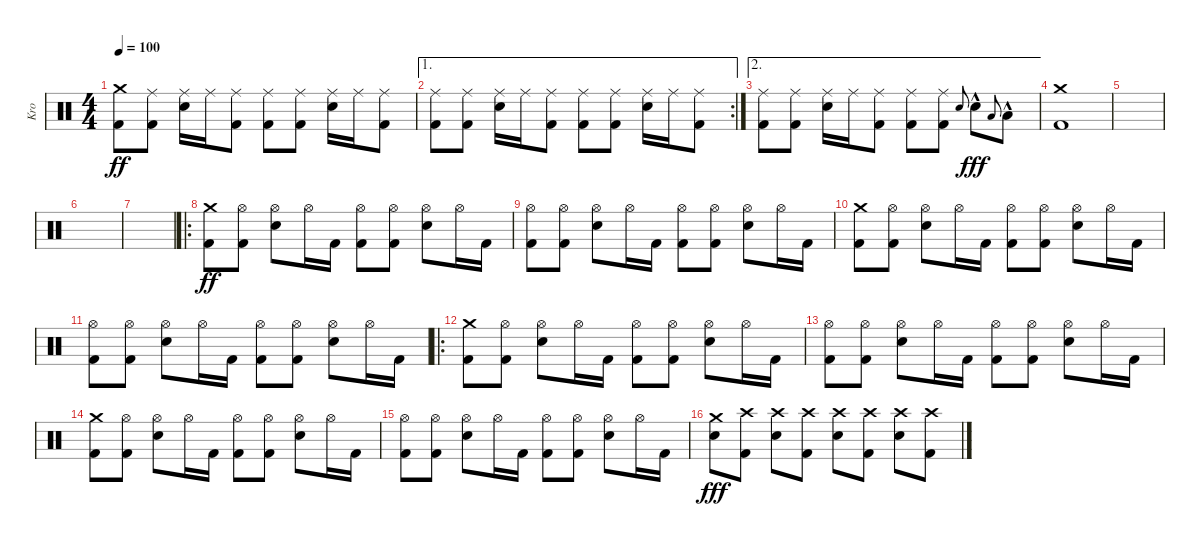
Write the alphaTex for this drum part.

\track ("Kro" "Kro") {instrument percussion}
\staff {score}
\articulation defaults
\ts (4 4)
\tempo 100
\clef neutral
\ks c
("Crash medium (hit)" "Kick (hit) 2").8{dy ff} ("Ride (middle)" "Kick (hit) 2").8 ("Ride (middle)" "Electric Snare (hit)").16 "Ride (middle)".16 ("Ride (middle)" "Kick (hit) 2").8 ("Ride (middle)" "Kick (hit) 2").8 ("Ride (middle)" "Kick (hit) 2").8 ("Ride (middle)" "Electric Snare (hit)").16 "Ride (middle)".16 ("Ride (middle)" "Kick (hit) 2").8 |
\ae 1
\rc 2
("Ride (middle)" "Kick (hit) 2").8 ("Ride (middle)" "Kick (hit) 2").8 ("Ride (middle)" "Electric Snare (hit)").16 "Ride (middle)".16 ("Ride (middle)" "Kick (hit) 2").8 ("Ride (middle)" "Kick (hit) 2").8 ("Ride (middle)" "Kick (hit) 2").8 ("Ride (middle)" "Electric Snare (hit)").16 "Ride (middle)".16 ("Ride (middle)" "Kick (hit) 2").8 |
\ae 2
("Ride (middle)" "Kick (hit) 2").8 ("Ride (middle)" "Kick (hit) 2").8 ("Ride (middle)" "Electric Snare (hit)").16 "Ride (middle)".16 ("Ride (middle)" "Kick (hit) 2").8 ("Ride (middle)" "Kick (hit) 2").8 ("Ride (middle)" "Kick (hit) 2").8 "Electric Snare (hit)".8{gr onbeat} "Electric Snare (hit)"{hac}.8{dy fff} "Low Tom (hit)".8{gr onbeat} "Low Tom (hit)"{hac}.8 |
("Crash medium (hit)" "Kick (hit) 2").1 |
|
|
|
\ro
("Crash medium (hit)" "Kick (hit) 2").8{dy ff} ("Hi-Hat (open)" "Kick (hit) 2").8 ("Hi-Hat (open)" "Electric Snare (hit)").8 "Hi-Hat (open)".16 "Kick (hit) 2".16 ("Hi-Hat (open)" "Kick (hit) 2").8 ("Hi-Hat (open)" "Kick (hit) 2").8 ("Hi-Hat (open)" "Electric Snare (hit)").8 "Hi-Hat (open)".16 "Kick (hit) 2".16 |
("Hi-Hat (open)" "Kick (hit) 2").8 ("Hi-Hat (open)" "Kick (hit) 2").8 ("Hi-Hat (open)" "Electric Snare (hit)").8 "Hi-Hat (open)".16 "Kick (hit) 2".16 ("Hi-Hat (open)" "Kick (hit) 2").8 ("Hi-Hat (open)" "Kick (hit) 2").8 ("Hi-Hat (open)" "Electric Snare (hit)").8 "Hi-Hat (open)".16 "Kick (hit) 2".16 |
("Crash medium (hit)" "Kick (hit) 2").8 ("Hi-Hat (open)" "Kick (hit) 2").8 ("Hi-Hat (open)" "Electric Snare (hit)").8 "Hi-Hat (open)".16 "Kick (hit) 2".16 ("Hi-Hat (open)" "Kick (hit) 2").8 ("Hi-Hat (open)" "Kick (hit) 2").8 ("Hi-Hat (open)" "Electric Snare (hit)").8 "Hi-Hat (open)".16 "Kick (hit) 2".16 |
("Hi-Hat (open)" "Kick (hit) 2").8 ("Hi-Hat (open)" "Kick (hit) 2").8 ("Hi-Hat (open)" "Electric Snare (hit)").8 "Hi-Hat (open)".16 "Kick (hit) 2".16 ("Hi-Hat (open)" "Kick (hit) 2").8 ("Hi-Hat (open)" "Kick (hit) 2").8 ("Hi-Hat (open)" "Electric Snare (hit)").8 "Hi-Hat (open)".16 "Kick (hit) 2".16 |
\ro
("Crash medium (hit)" "Kick (hit) 2").8 ("Hi-Hat (open)" "Kick (hit) 2").8 ("Hi-Hat (open)" "Electric Snare (hit)").8 "Hi-Hat (open)".16 "Kick (hit) 2".16 ("Hi-Hat (open)" "Kick (hit) 2").8 ("Hi-Hat (open)" "Kick (hit) 2").8 ("Hi-Hat (open)" "Electric Snare (hit)").8 "Hi-Hat (open)".16 "Kick (hit) 2".16 |
("Hi-Hat (open)" "Kick (hit) 2").8 ("Hi-Hat (open)" "Kick (hit) 2").8 ("Hi-Hat (open)" "Electric Snare (hit)").8 "Hi-Hat (open)".16 "Kick (hit) 2".16 ("Hi-Hat (open)" "Kick (hit) 2").8 ("Hi-Hat (open)" "Kick (hit) 2").8 ("Hi-Hat (open)" "Electric Snare (hit)").8 "Hi-Hat (open)".16 "Kick (hit) 2".16 |
("Crash medium (hit)" "Kick (hit) 2").8 ("Hi-Hat (open)" "Kick (hit) 2").8 ("Hi-Hat (open)" "Electric Snare (hit)").8 "Hi-Hat (open)".16 "Kick (hit) 2".16 ("Hi-Hat (open)" "Kick (hit) 2").8 ("Hi-Hat (open)" "Kick (hit) 2").8 ("Hi-Hat (open)" "Electric Snare (hit)").8 "Hi-Hat (open)".16 "Kick (hit) 2".16 |
("Hi-Hat (open)" "Kick (hit) 2").8 ("Hi-Hat (open)" "Kick (hit) 2").8 ("Hi-Hat (open)" "Electric Snare (hit)").8 "Hi-Hat (open)".16 "Kick (hit) 2".16 ("Hi-Hat (open)" "Kick (hit) 2").8 ("Hi-Hat (open)" "Kick (hit) 2").8 ("Hi-Hat (open)" "Electric Snare (hit)").8 "Hi-Hat (open)".16 "Kick (hit) 2".16 |
("Crash medium (hit)" "Electric Snare (hit)").8{dy fff} ("Crash high (hit)" "Kick (hit) 2").8 ("Crash high (hit)" "Electric Snare (hit)").8 ("Crash high (hit)" "Kick (hit) 2").8 ("Crash high (hit)" "Electric Snare (hit)").8 ("Crash high (hit)" "Kick (hit) 2").8 ("Crash high (hit)" "Electric Snare (hit)").8 ("Crash high (hit)" "Kick (hit) 2").8
